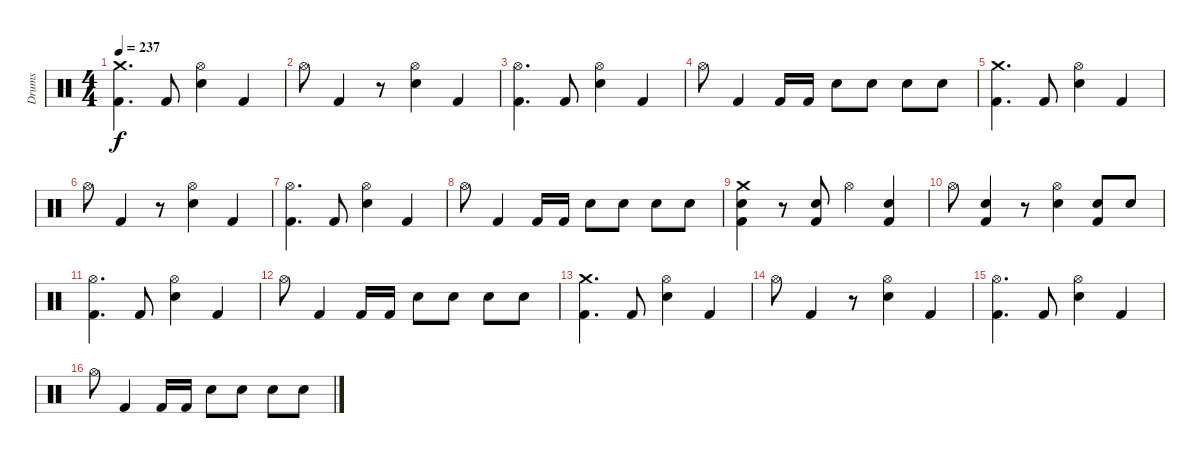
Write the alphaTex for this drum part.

\track ("Drums" "Drums") {instrument percussion}
\staff {score}
\articulation defaults
\ts (4 4)
\tempo 237
\clef neutral
\ks c
("Crash medium (hit)" "Kick (hit) 2").4{d dy f} "Kick (hit) 2".8 ("Hi-Hat (open)" "Electric Snare (hit)").4 "Kick (hit) 2".4 |
"Hi-Hat (open)".8 "Kick (hit) 2".4 r.8 ("Hi-Hat (open)" "Electric Snare (hit)").4 "Kick (hit) 2".4 |
("Hi-Hat (open)" "Kick (hit) 2").4{d} "Kick (hit) 2".8 ("Hi-Hat (open)" "Electric Snare (hit)").4 "Kick (hit) 2".4 |
"Hi-Hat (open)".8 "Kick (hit) 2".4 "Kick (hit) 2".16 "Kick (hit) 2".16 "Electric Snare (hit)".8 "Electric Snare (hit)".8 "Electric Snare (hit)".8 "Electric Snare (hit)".8 |
("Crash medium (hit)" "Kick (hit) 2").4{d} "Kick (hit) 2".8 ("Hi-Hat (open)" "Electric Snare (hit)").4 "Kick (hit) 2".4 |
"Hi-Hat (open)".8 "Kick (hit) 2".4 r.8 ("Hi-Hat (open)" "Electric Snare (hit)").4 "Kick (hit) 2".4 |
("Hi-Hat (open)" "Kick (hit) 2").4{d} "Kick (hit) 2".8 ("Hi-Hat (open)" "Electric Snare (hit)").4 "Kick (hit) 2".4 |
"Hi-Hat (open)".8 "Kick (hit) 2".4 "Kick (hit) 2".16 "Kick (hit) 2".16 "Electric Snare (hit)".8 "Electric Snare (hit)".8 "Electric Snare (hit)".8 "Electric Snare (hit)".8 |
("Crash medium (hit)" "Electric Snare (hit)" "Kick (hit) 2").4 r.8 ("Electric Snare (hit)" "Kick (hit) 2").8 "Hi-Hat (open)".4 ("Electric Snare (hit)" "Kick (hit) 2").4 |
"Hi-Hat (open)".8 ("Electric Snare (hit)" "Kick (hit) 2").4 r.8 ("Hi-Hat (open)" "Electric Snare (hit)").4 ("Electric Snare (hit)" "Kick (hit) 2").8 "Electric Snare (hit)".8 |
("Hi-Hat (open)" "Kick (hit) 2").4{d} "Kick (hit) 2".8 ("Hi-Hat (open)" "Electric Snare (hit)").4 "Kick (hit) 2".4 |
"Hi-Hat (open)".8 "Kick (hit) 2".4 "Kick (hit) 2".16 "Kick (hit) 2".16 "Electric Snare (hit)".8 "Electric Snare (hit)".8 "Electric Snare (hit)".8 "Electric Snare (hit)".8 |
("Crash medium (hit)" "Kick (hit) 2").4{d} "Kick (hit) 2".8 ("Hi-Hat (open)" "Electric Snare (hit)").4 "Kick (hit) 2".4 |
"Hi-Hat (open)".8 "Kick (hit) 2".4 r.8 ("Hi-Hat (open)" "Electric Snare (hit)").4 "Kick (hit) 2".4 |
("Hi-Hat (open)" "Kick (hit) 2").4{d} "Kick (hit) 2".8 ("Hi-Hat (open)" "Electric Snare (hit)").4 "Kick (hit) 2".4 |
"Hi-Hat (open)".8 "Kick (hit) 2".4 "Kick (hit) 2".16 "Kick (hit) 2".16 "Electric Snare (hit)".8 "Electric Snare (hit)".8 "Electric Snare (hit)".8 "Electric Snare (hit)".8
